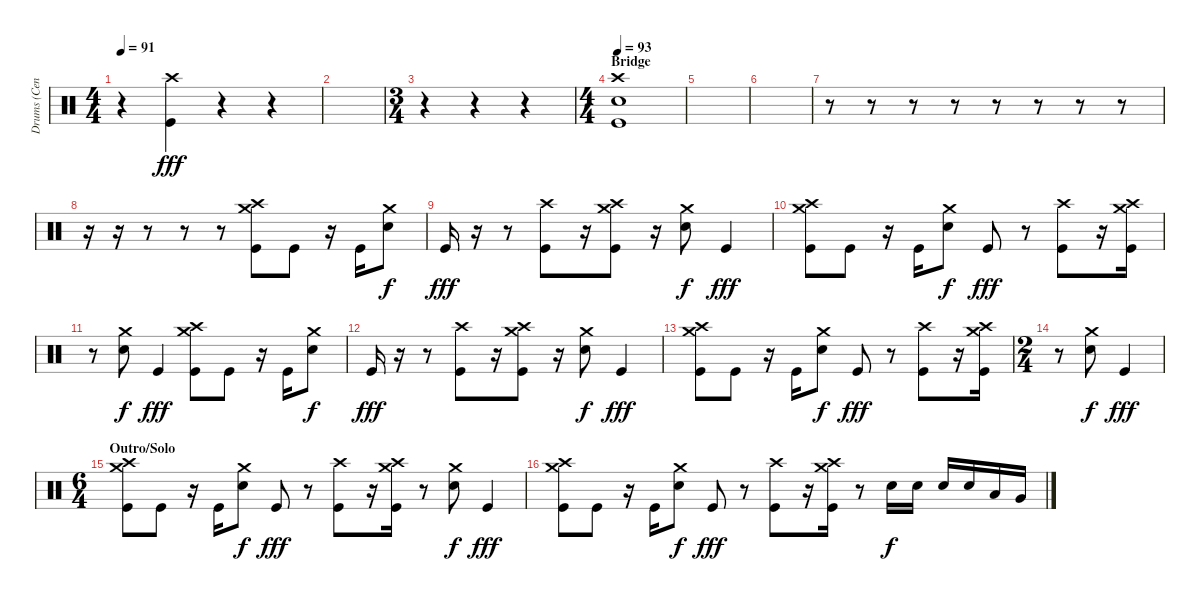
\track ("Drums (Cenk)" "Drums (Cen") {instrument percussion}
\staff {score}
\articulation defaults
\ts (4 4)
\tempo 91
\clef neutral
\ks c
r.4{dy f} ("Crash high (hit)" "Kick (hit)").4{dy fff} r.4 r.4 |
|
\ts (3 4)
r.4 r.4 r.4 |
\ts (4 4)
\section ("" "Bridge")
\tempo 93
("Crash high (hit)" "Snare (hit) 2" "Kick (hit)").1 |
|
|
r.8 r.8 r.8 r.8 r.8 r.8 r.8 r.8 |
r.16 r.16 r.8 r.8 r.8 ("Crash medium (hit)" "Crash high (hit)" "Kick (hit)").8 "Kick (hit)".8 r.16 "Kick (hit)".16 ("Crash medium (hit)" "Snare (hit) 2").8{dy f} |
"Kick (hit)".16{dy fff} r.16 r.8 ("Crash high (hit)" "Kick (hit)").8 r.16 ("Crash high (hit)" "Crash medium (hit)" "Kick (hit)").8 r.16 ("Crash medium (hit)" "Snare (hit) 2").8{dy f} "Kick (hit)".4{dy fff} |
("Crash medium (hit)" "Crash high (hit)" "Kick (hit)").8 "Kick (hit)".8 r.16 "Kick (hit)".16 ("Crash medium (hit)" "Snare (hit) 2").8{dy f} "Kick (hit)".8{dy fff} r.8 ("Crash high (hit)" "Kick (hit)").8 r.16 ("Crash high (hit)" "Crash medium (hit)" "Kick (hit)").16 |
r.8 ("Crash medium (hit)" "Snare (hit) 2").8{dy f} "Kick (hit)".4{dy fff} ("Crash medium (hit)" "Crash high (hit)" "Kick (hit)").8 "Kick (hit)".8 r.16 "Kick (hit)".16 ("Crash medium (hit)" "Snare (hit) 2").8{dy f} |
"Kick (hit)".16{dy fff} r.16 r.8 ("Crash high (hit)" "Kick (hit)").8 r.16 ("Crash high (hit)" "Crash medium (hit)" "Kick (hit)").8 r.16 ("Crash medium (hit)" "Snare (hit) 2").8{dy f} "Kick (hit)".4{dy fff} |
("Crash medium (hit)" "Crash high (hit)" "Kick (hit)").8 "Kick (hit)".8 r.16 "Kick (hit)".16 ("Crash medium (hit)" "Snare (hit) 2").8{dy f} "Kick (hit)".8{dy fff} r.8 ("Crash high (hit)" "Kick (hit)").8 r.16 ("Crash high (hit)" "Crash medium (hit)" "Kick (hit)").16 |
\ts (2 4)
r.8 ("Crash medium (hit)" "Snare (hit) 2").8{dy f} "Kick (hit)".4{dy fff} |
\ts (6 4)
\section ("" "Outro/Solo")
("Crash medium (hit)" "Crash high (hit)" "Kick (hit)").8 "Kick (hit)".8 r.16 "Kick (hit)".16 ("Crash medium (hit)" "Snare (hit) 2").8{dy f} "Kick (hit)".8{dy fff} r.8 ("Crash high (hit)" "Kick (hit)").8 r.16 ("Crash high (hit)" "Crash medium (hit)" "Kick (hit)").16 r.8 ("Crash medium (hit)" "Snare (hit) 2").8{dy f} "Kick (hit)".4{dy fff} |
("Crash medium (hit)" "Crash high (hit)" "Kick (hit)").8 "Kick (hit)".8 r.16 "Kick (hit)".16 ("Crash medium (hit)" "Snare (hit) 2").8{dy f} "Kick (hit)".8{dy fff} r.8 ("Crash high (hit)" "Kick (hit)").8 r.16 ("Crash high (hit)" "Crash medium (hit)" "Kick (hit)").16 r.8 "Snare (hit) 2".16{dy f} "Snare (hit) 2".16 "Snare (hit) 2".16 "Snare (hit) 2".16 "Low Tom (hit)".16 "Very Low Tom (hit)".16
